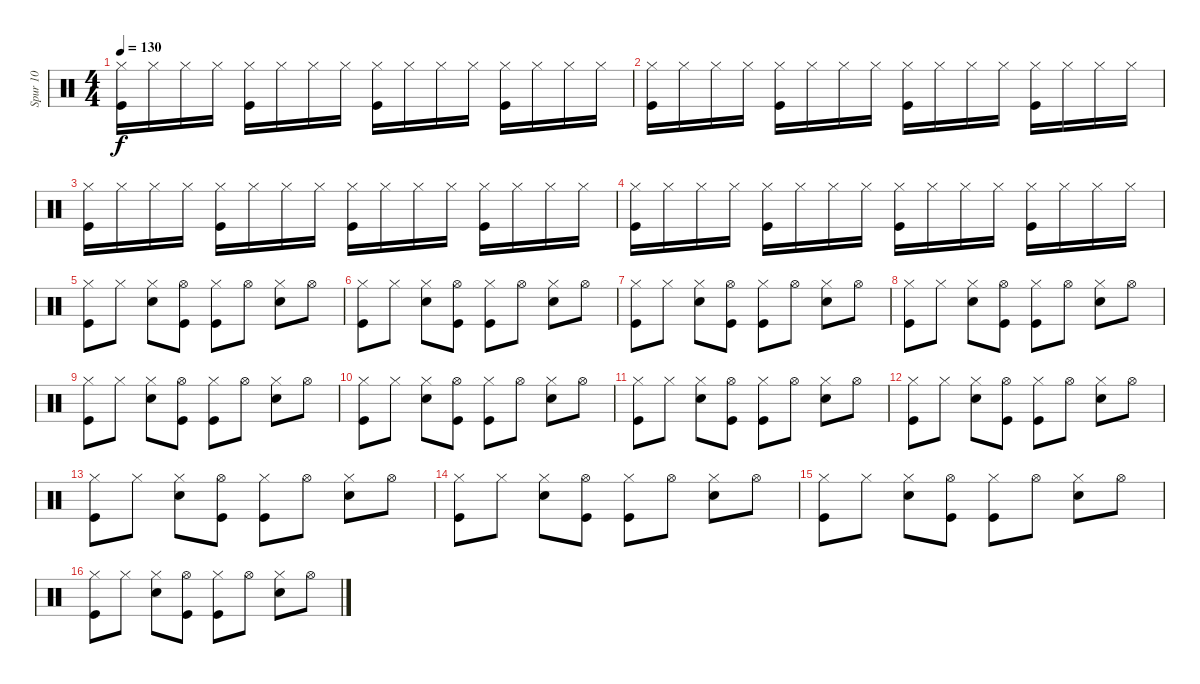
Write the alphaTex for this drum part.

\track ("Spur 10" "Spur 10") {instrument percussion}
\staff {score}
\articulation defaults
\ts (4 4)
\tempo 130
\clef neutral
\ks c
("Hi-Hat (closed)" "Kick (hit)").16{dy f} "Hi-Hat (closed)".16 "Hi-Hat (closed)".16 "Hi-Hat (closed)".16 ("Hi-Hat (closed)" "Kick (hit)").16 "Hi-Hat (closed)".16 "Hi-Hat (closed)".16 "Hi-Hat (closed)".16 ("Hi-Hat (closed)" "Kick (hit)").16 "Hi-Hat (closed)".16 "Hi-Hat (closed)".16 "Hi-Hat (closed)".16 ("Hi-Hat (closed)" "Kick (hit)").16 "Hi-Hat (closed)".16 "Hi-Hat (closed)".16 "Hi-Hat (closed)".16 |
("Hi-Hat (closed)" "Kick (hit)").16 "Hi-Hat (closed)".16 "Hi-Hat (closed)".16 "Hi-Hat (closed)".16 ("Hi-Hat (closed)" "Kick (hit)").16 "Hi-Hat (closed)".16 "Hi-Hat (closed)".16 "Hi-Hat (closed)".16 ("Hi-Hat (closed)" "Kick (hit)").16 "Hi-Hat (closed)".16 "Hi-Hat (closed)".16 "Hi-Hat (closed)".16 ("Hi-Hat (closed)" "Kick (hit)").16 "Hi-Hat (closed)".16 "Hi-Hat (closed)".16 "Hi-Hat (closed)".16 |
("Hi-Hat (closed)" "Kick (hit)").16 "Hi-Hat (closed)".16 "Hi-Hat (closed)".16 "Hi-Hat (closed)".16 ("Hi-Hat (closed)" "Kick (hit)").16 "Hi-Hat (closed)".16 "Hi-Hat (closed)".16 "Hi-Hat (closed)".16 ("Hi-Hat (closed)" "Kick (hit)").16 "Hi-Hat (closed)".16 "Hi-Hat (closed)".16 "Hi-Hat (closed)".16 ("Hi-Hat (closed)" "Kick (hit)").16 "Hi-Hat (closed)".16 "Hi-Hat (closed)".16 "Hi-Hat (closed)".16 |
("Hi-Hat (closed)" "Kick (hit)").16 "Hi-Hat (closed)".16 "Hi-Hat (closed)".16 "Hi-Hat (closed)".16 ("Hi-Hat (closed)" "Kick (hit)").16 "Hi-Hat (closed)".16 "Hi-Hat (closed)".16 "Hi-Hat (closed)".16 ("Hi-Hat (closed)" "Kick (hit)").16 "Hi-Hat (closed)".16 "Hi-Hat (closed)".16 "Hi-Hat (closed)".16 ("Hi-Hat (closed)" "Kick (hit)").16 "Hi-Hat (closed)".16 "Hi-Hat (closed)".16 "Hi-Hat (closed)".16 |
("Kick (hit)" "Hi-Hat (closed)").8 "Hi-Hat (closed)".8 ("Snare (hit) 2" "Hi-Hat (closed)").8 ("Kick (hit)" "Hi-Hat (open)").8 ("Kick (hit)" "Hi-Hat (closed)").8 "Hi-Hat (open)".8 ("Snare (hit) 2" "Hi-Hat (closed)").8 "Hi-Hat (open)".8 |
("Kick (hit)" "Hi-Hat (closed)").8 "Hi-Hat (closed)".8 ("Snare (hit) 2" "Hi-Hat (closed)").8 ("Kick (hit)" "Hi-Hat (open)").8 ("Kick (hit)" "Hi-Hat (closed)").8 "Hi-Hat (open)".8 ("Snare (hit) 2" "Hi-Hat (closed)").8 "Hi-Hat (open)".8 |
("Kick (hit)" "Hi-Hat (closed)").8 "Hi-Hat (closed)".8 ("Snare (hit) 2" "Hi-Hat (closed)").8 ("Kick (hit)" "Hi-Hat (open)").8 ("Kick (hit)" "Hi-Hat (closed)").8 "Hi-Hat (open)".8 ("Snare (hit) 2" "Hi-Hat (closed)").8 "Hi-Hat (open)".8 |
("Kick (hit)" "Hi-Hat (closed)").8 "Hi-Hat (closed)".8 ("Snare (hit) 2" "Hi-Hat (closed)").8 ("Kick (hit)" "Hi-Hat (open)").8 ("Kick (hit)" "Hi-Hat (closed)").8 "Hi-Hat (open)".8 ("Snare (hit) 2" "Hi-Hat (closed)").8 "Hi-Hat (open)".8 |
("Kick (hit)" "Hi-Hat (closed)").8 "Hi-Hat (closed)".8 ("Snare (hit) 2" "Hi-Hat (closed)").8 ("Kick (hit)" "Hi-Hat (open)").8 ("Kick (hit)" "Hi-Hat (closed)").8 "Hi-Hat (open)".8 ("Snare (hit) 2" "Hi-Hat (closed)").8 "Hi-Hat (open)".8 |
("Kick (hit)" "Hi-Hat (closed)").8 "Hi-Hat (closed)".8 ("Snare (hit) 2" "Hi-Hat (closed)").8 ("Kick (hit)" "Hi-Hat (open)").8 ("Kick (hit)" "Hi-Hat (closed)").8 "Hi-Hat (open)".8 ("Snare (hit) 2" "Hi-Hat (closed)").8 "Hi-Hat (open)".8 |
("Kick (hit)" "Hi-Hat (closed)").8 "Hi-Hat (closed)".8 ("Snare (hit) 2" "Hi-Hat (closed)").8 ("Kick (hit)" "Hi-Hat (open)").8 ("Kick (hit)" "Hi-Hat (closed)").8 "Hi-Hat (open)".8 ("Snare (hit) 2" "Hi-Hat (closed)").8 "Hi-Hat (open)".8 |
("Kick (hit)" "Hi-Hat (closed)").8 "Hi-Hat (closed)".8 ("Snare (hit) 2" "Hi-Hat (closed)").8 ("Kick (hit)" "Hi-Hat (open)").8 ("Kick (hit)" "Hi-Hat (closed)").8 "Hi-Hat (open)".8 ("Snare (hit) 2" "Hi-Hat (closed)").8 "Hi-Hat (open)".8 |
("Kick (hit)" "Hi-Hat (closed)").8 "Hi-Hat (closed)".8 ("Snare (hit) 2" "Hi-Hat (closed)").8 ("Kick (hit)" "Hi-Hat (open)").8 ("Kick (hit)" "Hi-Hat (closed)").8 "Hi-Hat (open)".8 ("Snare (hit) 2" "Hi-Hat (closed)").8 "Hi-Hat (open)".8 |
("Kick (hit)" "Hi-Hat (closed)").8 "Hi-Hat (closed)".8 ("Snare (hit) 2" "Hi-Hat (closed)").8 ("Kick (hit)" "Hi-Hat (open)").8 ("Kick (hit)" "Hi-Hat (closed)").8 "Hi-Hat (open)".8 ("Snare (hit) 2" "Hi-Hat (closed)").8 "Hi-Hat (open)".8 |
("Kick (hit)" "Hi-Hat (closed)").8 "Hi-Hat (closed)".8 ("Snare (hit) 2" "Hi-Hat (closed)").8 ("Kick (hit)" "Hi-Hat (open)").8 ("Kick (hit)" "Hi-Hat (closed)").8 "Hi-Hat (open)".8 ("Snare (hit) 2" "Hi-Hat (closed)").8 "Hi-Hat (open)".8 |
("Kick (hit)" "Hi-Hat (closed)").8 "Hi-Hat (closed)".8 ("Snare (hit) 2" "Hi-Hat (closed)").8 ("Kick (hit)" "Hi-Hat (open)").8 ("Kick (hit)" "Hi-Hat (closed)").8 "Hi-Hat (open)".8 ("Snare (hit) 2" "Hi-Hat (closed)").8 "Hi-Hat (open)".8
